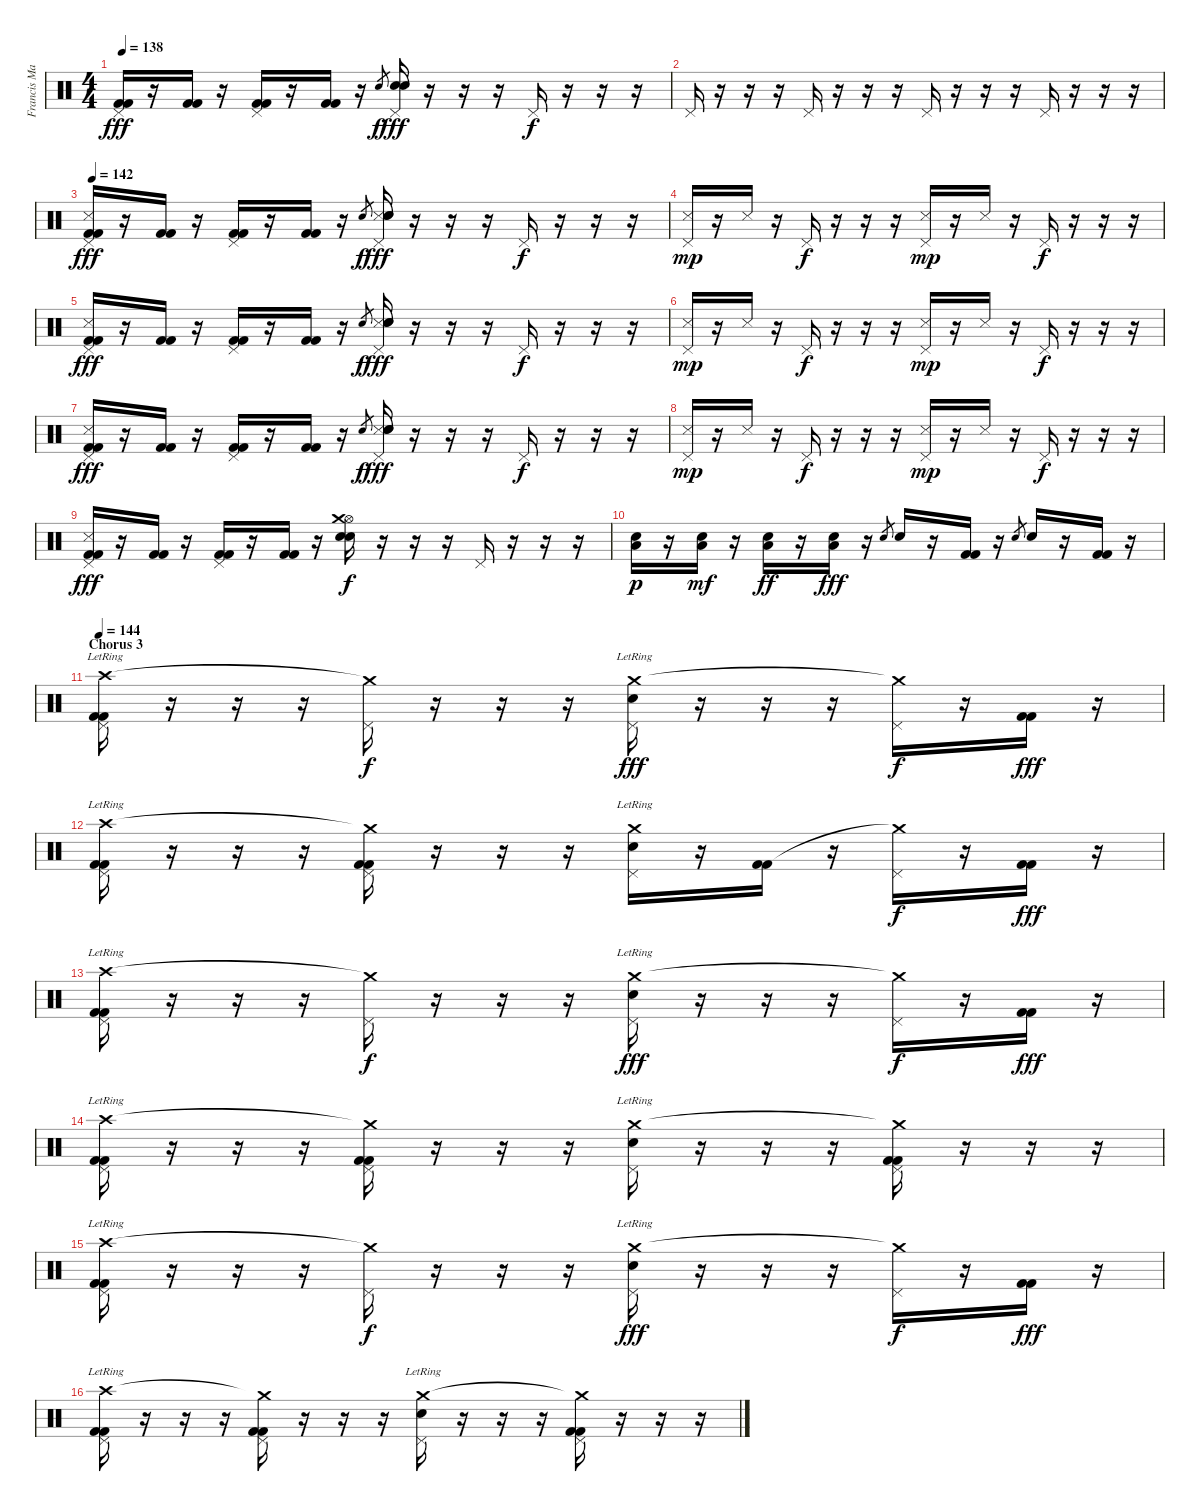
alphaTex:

\track ("Francis Mark" "Francis Ma") {instrument percussion}
\staff {score}
\articulation defaults
\ts (4 4)
\tempo 138
\clef neutral
\ks c
("Pedal Hi-Hat (hit)" "Kick (hit) 2" "Kick (hit) 2").16{dy fff} r.16 ("Kick (hit) 2" "Kick (hit) 2").16 r.16 ("Pedal Hi-Hat (hit)" "Kick (hit) 2" "Kick (hit) 2").16 r.16 ("Kick (hit) 2" "Kick (hit) 2").16 r.16 "Electric Snare (hit)".8{gr dy f} ("Pedal Hi-Hat (hit)" "Electric Snare (hit)" "Electric Snare (hit)").16{dy fff} r.16 r.16 r.16 "Pedal Hi-Hat (hit)".16{dy f} r.16 r.16 r.16 |
"Pedal Hi-Hat (hit)".16 r.16 r.16 r.16 "Pedal Hi-Hat (hit)".16 r.16 r.16 r.16 "Pedal Hi-Hat (hit)".16 r.16 r.16 r.16 "Pedal Hi-Hat (hit)".16 r.16 r.16 r.16 |
\tempo 142
("Pedal Hi-Hat (hit)" "Snare (side stick) 3" "Kick (hit) 2" "Kick (hit) 2").16{dy fff} r.16 ("Kick (hit) 2" "Kick (hit) 2").16 r.16 ("Pedal Hi-Hat (hit)" "Kick (hit) 2" "Kick (hit) 2").16 r.16 ("Kick (hit) 2" "Kick (hit) 2").16 r.16 "Electric Snare (hit)".8{gr dy f} ("Pedal Hi-Hat (hit)" "Snare (side stick) 3" "Electric Snare (hit)" "Electric Snare (hit)").16{dy fff} r.16 r.16 r.16 "Pedal Hi-Hat (hit)".16{dy f} r.16 r.16 r.16 |
("Pedal Hi-Hat (hit)" "Metronome (hit)").16{dy mp} r.16 "Snare (side stick) 3".16 r.16 "Pedal Hi-Hat (hit)".16{dy f} r.16 r.16 r.16 ("Pedal Hi-Hat (hit)" "Metronome (hit)").16{dy mp} r.16 "Snare (side stick) 3".16 r.16 "Pedal Hi-Hat (hit)".16{dy f} r.16 r.16 r.16 |
("Pedal Hi-Hat (hit)" "Snare (side stick) 3" "Kick (hit) 2" "Kick (hit) 2").16{dy fff} r.16 ("Kick (hit) 2" "Kick (hit) 2").16 r.16 ("Pedal Hi-Hat (hit)" "Kick (hit) 2" "Kick (hit) 2").16 r.16 ("Kick (hit) 2" "Kick (hit) 2").16 r.16 "Electric Snare (hit)".8{gr dy f} ("Pedal Hi-Hat (hit)" "Snare (side stick) 3" "Electric Snare (hit)" "Electric Snare (hit)").16{dy fff} r.16 r.16 r.16 "Pedal Hi-Hat (hit)".16{dy f} r.16 r.16 r.16 |
("Pedal Hi-Hat (hit)" "Metronome (hit)").16{dy mp} r.16 "Snare (side stick) 3".16 r.16 "Pedal Hi-Hat (hit)".16{dy f} r.16 r.16 r.16 ("Pedal Hi-Hat (hit)" "Metronome (hit)").16{dy mp} r.16 "Snare (side stick) 3".16 r.16 "Pedal Hi-Hat (hit)".16{dy f} r.16 r.16 r.16 |
("Pedal Hi-Hat (hit)" "Snare (side stick) 3" "Kick (hit) 2" "Kick (hit) 2").16{dy fff} r.16 ("Kick (hit) 2" "Kick (hit) 2").16 r.16 ("Pedal Hi-Hat (hit)" "Kick (hit) 2" "Kick (hit) 2").16 r.16 ("Kick (hit) 2" "Kick (hit) 2").16 r.16 "Electric Snare (hit)".8{gr dy f} ("Pedal Hi-Hat (hit)" "Snare (side stick) 3" "Electric Snare (hit)" "Electric Snare (hit)").16{dy fff} r.16 r.16 r.16 "Pedal Hi-Hat (hit)".16{dy f} r.16 r.16 r.16 |
("Pedal Hi-Hat (hit)" "Metronome (hit)").16{dy mp} r.16 "Snare (side stick) 3".16 r.16 "Pedal Hi-Hat (hit)".16{dy f} r.16 r.16 r.16 ("Pedal Hi-Hat (hit)" "Snare (side stick) 3").16{dy mp} r.16 "Metronome (hit)".16 r.16 "Pedal Hi-Hat (hit)".16{dy f} r.16 r.16 r.16 |
("Pedal Hi-Hat (hit)" "Snare (side stick) 3" "Kick (hit) 2" "Kick (hit) 2").16{dy fff} r.16 ("Kick (hit) 2" "Kick (hit) 2").16 r.16 ("Pedal Hi-Hat (hit)" "Kick (hit) 2" "Kick (hit) 2").16 r.16 ("Kick (hit) 2" "Kick (hit) 2").16 r.16 ("Hi-Hat (open)" "Crash medium (hit)" "Electric Snare (hit)" "Electric Snare (hit)").16{dy f} r.16 r.16 r.16 "Pedal Hi-Hat (hit)".16 r.16 r.16 r.16 |
("Low Floor Tom (hit)" "Electric Snare (hit)").16{dy p} r.16 ("Low Floor Tom (hit)" "Electric Snare (hit)").16{dy mf} r.16 ("Low Floor Tom (hit)" "Electric Snare (hit)").16{dy ff} r.16 ("Low Floor Tom (hit)" "Electric Snare (hit)").16{dy fff} r.16 "Electric Snare (hit)".8{gr} "Electric Snare (hit)".16 r.16 ("Kick (hit) 2" "Kick (hit) 2").16 r.16 "Electric Snare (hit)".8{gr} "Electric Snare (hit)".16 r.16 ("Kick (hit) 2" "Kick (hit) 2").16 r.16 |
\section ("" "Chorus 3")
\tempo 144
("Crash high (hit)"{lr} "Pedal Hi-Hat (hit)" "Kick (hit) 2" "Kick (hit) 2").16 r.16 r.16 r.16 ("Crash medium (hit)"{t} "Pedal Hi-Hat (hit)").16{dy f} r.16 r.16 r.16 ("Crash medium (hit)"{lr} "Pedal Hi-Hat (hit)" "Electric Snare (hit)").16{dy fff} r.16 r.16 r.16 ("Crash medium (hit)"{t} "Pedal Hi-Hat (hit)").16{dy f} r.16 ("Kick (hit) 2" "Kick (hit) 2").16{dy fff} r.16 |
("Crash high (hit)"{lr} "Pedal Hi-Hat (hit)" "Kick (hit) 2" "Kick (hit) 2").16 r.16 r.16 r.16 ("Crash medium (hit)"{t} "Pedal Hi-Hat (hit)" "Kick (hit) 2" "Kick (hit) 2").16 r.16 r.16 r.16 ("Crash medium (hit)"{lr} "Pedal Hi-Hat (hit)" "Electric Snare (hit)").16 r.16 ("Kick (hit) 2" "Kick (hit) 2").16 r.16 ("Crash medium (hit)"{t} "Pedal Hi-Hat (hit)").16{dy f} r.16 ("Kick (hit) 2" "Kick (hit) 2").16{dy fff} r.16 |
("Crash high (hit)"{lr} "Pedal Hi-Hat (hit)" "Kick (hit) 2" "Kick (hit) 2").16 r.16 r.16 r.16 ("Crash medium (hit)"{t} "Pedal Hi-Hat (hit)").16{dy f} r.16 r.16 r.16 ("Crash medium (hit)"{lr} "Pedal Hi-Hat (hit)" "Electric Snare (hit)").16{dy fff} r.16 r.16 r.16 ("Crash medium (hit)"{t} "Pedal Hi-Hat (hit)").16{dy f} r.16 ("Kick (hit) 2" "Kick (hit) 2").16{dy fff} r.16 |
("Crash high (hit)"{lr} "Pedal Hi-Hat (hit)" "Kick (hit) 2" "Kick (hit) 2").16 r.16 r.16 r.16 ("Crash medium (hit)"{t} "Pedal Hi-Hat (hit)" "Kick (hit) 2" "Kick (hit) 2").16 r.16 r.16 r.16 ("Crash medium (hit)"{lr} "Pedal Hi-Hat (hit)" "Electric Snare (hit)").16 r.16 r.16 r.16 ("Crash medium (hit)"{t} "Pedal Hi-Hat (hit)" "Kick (hit) 2" "Kick (hit) 2").16 r.16 r.16 r.16 |
("Crash high (hit)"{lr} "Pedal Hi-Hat (hit)" "Kick (hit) 2" "Kick (hit) 2").16 r.16 r.16 r.16 ("Crash medium (hit)"{t} "Pedal Hi-Hat (hit)").16{dy f} r.16 r.16 r.16 ("Crash medium (hit)"{lr} "Pedal Hi-Hat (hit)" "Electric Snare (hit)").16{dy fff} r.16 r.16 r.16 ("Crash medium (hit)"{t} "Pedal Hi-Hat (hit)").16{dy f} r.16 ("Kick (hit) 2" "Kick (hit) 2").16{dy fff} r.16 |
("Crash high (hit)"{lr} "Pedal Hi-Hat (hit)" "Kick (hit) 2" "Kick (hit) 2").16 r.16 r.16 r.16 ("Crash medium (hit)"{t} "Pedal Hi-Hat (hit)" "Kick (hit) 2" "Kick (hit) 2").16 r.16 r.16 r.16 ("Crash medium (hit)"{lr} "Pedal Hi-Hat (hit)" "Electric Snare (hit)").16 r.16 r.16 r.16 ("Crash medium (hit)"{t} "Pedal Hi-Hat (hit)" "Kick (hit) 2" "Kick (hit) 2").16 r.16 r.16 r.16
